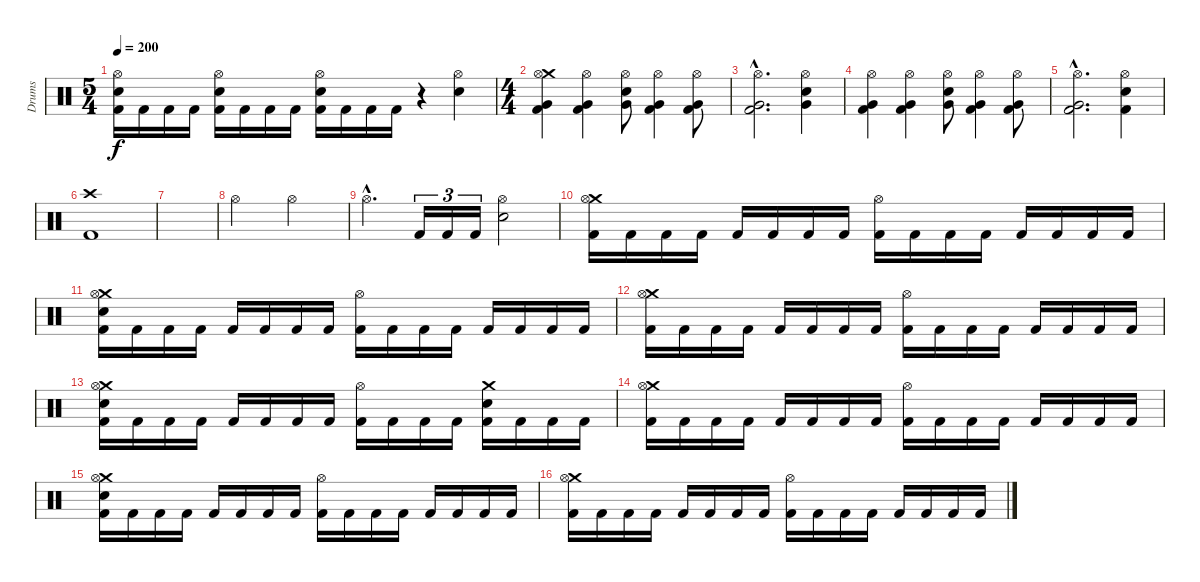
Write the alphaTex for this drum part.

\track ("Drums" "Drums") {instrument percussion}
\staff {score}
\articulation defaults
\ts (5 4)
\tempo 200
\clef neutral
\ks c
("Hi-Hat (open)" "Electric Snare (hit)" "Kick (hit) 2").16{dy f} "Kick (hit) 2".16 "Kick (hit) 2".16 "Kick (hit) 2".16 ("Hi-Hat (open)" "Electric Snare (hit)" "Kick (hit) 2").16 "Kick (hit) 2".16 "Kick (hit) 2".16 "Kick (hit) 2".16 ("Hi-Hat (open)" "Electric Snare (hit)" "Kick (hit) 2").16 "Kick (hit) 2".16 "Kick (hit) 2".16 "Kick (hit) 2".16 r.4 ("Electric Snare (hit)" "Hi-Hat (open)").4 |
\ts (4 4)
("Crash medium (hit)" "Hi-Hat (open)" "Very Low Tom (hit)" "Kick (hit) 2").4 ("Hi-Hat (open)" "Very Low Tom (hit)" "Kick (hit) 2").4 ("Hi-Hat (open)" "Very Low Tom (hit)" "Electric Snare (hit)").8 ("Hi-Hat (open)" "Very Low Tom (hit)" "Kick (hit) 2").4 ("Hi-Hat (open)" "Very Low Tom (hit)" "Kick (hit) 2").8 |
("Hi-Hat (open)"{hac} "Very Low Tom (hit)"{hac} "Kick (hit) 2"{hac}).2{d} ("Hi-Hat (open)" "Very Low Tom (hit)" "Electric Snare (hit)").4 |
("Hi-Hat (open)" "Very Low Tom (hit)" "Kick (hit) 2").4 ("Hi-Hat (open)" "Very Low Tom (hit)" "Kick (hit) 2").4 ("Hi-Hat (open)" "Very Low Tom (hit)" "Electric Snare (hit)").8 ("Hi-Hat (open)" "Very Low Tom (hit)" "Kick (hit) 2").4 ("Hi-Hat (open)" "Very Low Tom (hit)" "Kick (hit) 2").8 |
("Hi-Hat (open)"{hac} "Very Low Tom (hit)"{hac} "Kick (hit) 2"{hac}).2{d} ("Hi-Hat (open)" "Electric Snare (hit)" "Kick (hit) 2").4 |
("Crash high (hit)" "Kick (hit) 2").1 |
|
"Hi-Hat (open)".2 "Hi-Hat (open)".2 |
"Hi-Hat (open)"{hac}.4{d} "Kick (hit) 2".16{tu (3 2)} "Kick (hit) 2".16{tu (3 2)} "Kick (hit) 2".16{tu (3 2)} ("Hi-Hat (open)" "Electric Snare (hit)").2 |
("Crash medium (hit)" "Hi-Hat (open)" "Kick (hit) 2").16 "Kick (hit) 2".16 "Kick (hit) 2".16 "Kick (hit) 2".16 "Kick (hit) 2".16 "Kick (hit) 2".16 "Kick (hit) 2".16 "Kick (hit) 2".16 ("Hi-Hat (open)" "Kick (hit) 2").16 "Kick (hit) 2".16 "Kick (hit) 2".16 "Kick (hit) 2".16 "Kick (hit) 2".16 "Kick (hit) 2".16 "Kick (hit) 2".16 "Kick (hit) 2".16 |
("Crash medium (hit)" "Hi-Hat (open)" "Electric Snare (hit)" "Kick (hit) 2").16 "Kick (hit) 2".16 "Kick (hit) 2".16 "Kick (hit) 2".16 "Kick (hit) 2".16 "Kick (hit) 2".16 "Kick (hit) 2".16 "Kick (hit) 2".16 ("Hi-Hat (open)" "Kick (hit) 2").16 "Kick (hit) 2".16 "Kick (hit) 2".16 "Kick (hit) 2".16 "Kick (hit) 2".16 "Kick (hit) 2".16 "Kick (hit) 2".16 "Kick (hit) 2".16 |
("Crash medium (hit)" "Hi-Hat (open)" "Kick (hit) 2").16 "Kick (hit) 2".16 "Kick (hit) 2".16 "Kick (hit) 2".16 "Kick (hit) 2".16 "Kick (hit) 2".16 "Kick (hit) 2".16 "Kick (hit) 2".16 ("Hi-Hat (open)" "Kick (hit) 2").16 "Kick (hit) 2".16 "Kick (hit) 2".16 "Kick (hit) 2".16 "Kick (hit) 2".16 "Kick (hit) 2".16 "Kick (hit) 2".16 "Kick (hit) 2".16 |
("Crash medium (hit)" "Hi-Hat (open)" "Electric Snare (hit)" "Kick (hit) 2").16 "Kick (hit) 2".16 "Kick (hit) 2".16 "Kick (hit) 2".16 "Kick (hit) 2".16 "Kick (hit) 2".16 "Kick (hit) 2".16 "Kick (hit) 2".16 ("Hi-Hat (open)" "Kick (hit) 2").16 "Kick (hit) 2".16 "Kick (hit) 2".16 "Kick (hit) 2".16 ("Crash medium (hit)" "Electric Snare (hit)" "Kick (hit) 2").16 "Kick (hit) 2".16 "Kick (hit) 2".16 "Kick (hit) 2".16 |
("Crash medium (hit)" "Hi-Hat (open)" "Kick (hit) 2").16 "Kick (hit) 2".16 "Kick (hit) 2".16 "Kick (hit) 2".16 "Kick (hit) 2".16 "Kick (hit) 2".16 "Kick (hit) 2".16 "Kick (hit) 2".16 ("Hi-Hat (open)" "Kick (hit) 2").16 "Kick (hit) 2".16 "Kick (hit) 2".16 "Kick (hit) 2".16 "Kick (hit) 2".16 "Kick (hit) 2".16 "Kick (hit) 2".16 "Kick (hit) 2".16 |
("Crash medium (hit)" "Hi-Hat (open)" "Electric Snare (hit)" "Kick (hit) 2").16 "Kick (hit) 2".16 "Kick (hit) 2".16 "Kick (hit) 2".16 "Kick (hit) 2".16 "Kick (hit) 2".16 "Kick (hit) 2".16 "Kick (hit) 2".16 ("Hi-Hat (open)" "Kick (hit) 2").16 "Kick (hit) 2".16 "Kick (hit) 2".16 "Kick (hit) 2".16 "Kick (hit) 2".16 "Kick (hit) 2".16 "Kick (hit) 2".16 "Kick (hit) 2".16 |
("Crash medium (hit)" "Hi-Hat (open)" "Kick (hit) 2").16 "Kick (hit) 2".16 "Kick (hit) 2".16 "Kick (hit) 2".16 "Kick (hit) 2".16 "Kick (hit) 2".16 "Kick (hit) 2".16 "Kick (hit) 2".16 ("Hi-Hat (open)" "Kick (hit) 2").16 "Kick (hit) 2".16 "Kick (hit) 2".16 "Kick (hit) 2".16 "Kick (hit) 2".16 "Kick (hit) 2".16 "Kick (hit) 2".16 "Kick (hit) 2".16
